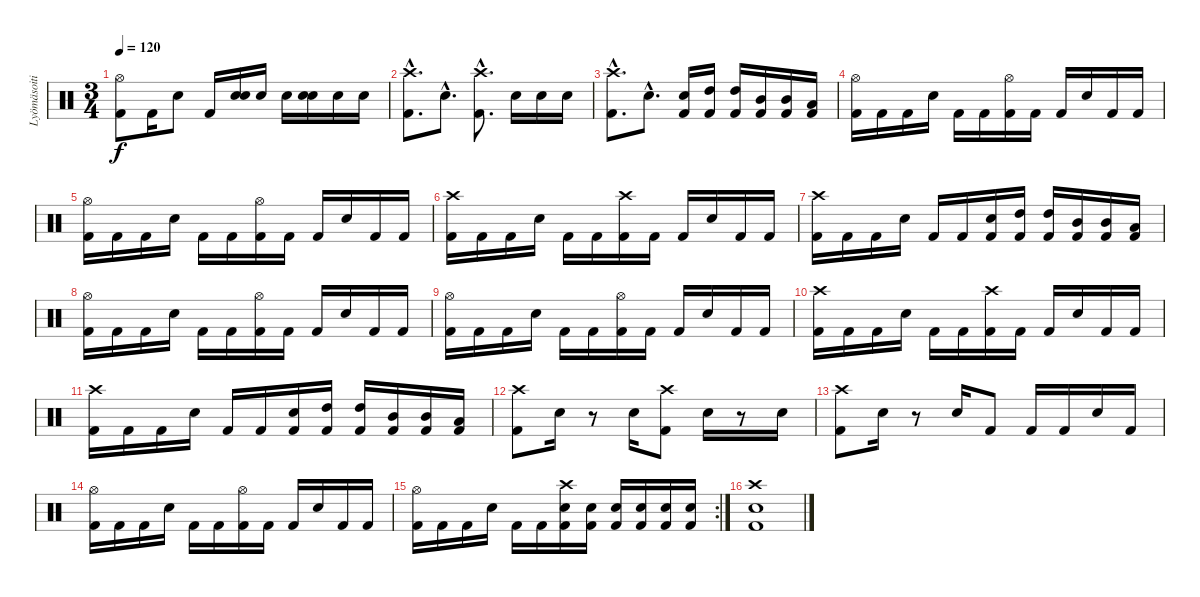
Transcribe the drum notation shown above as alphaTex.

\track ("Lyömäsoitin" "Lyömäsoiti") {instrument percussion}
\staff {score}
\articulation defaults
\ts (3 4)
\tempo 120
\clef neutral
\ks c
("Kick (hit) 2" "Hi-Hat (open)").8{dy f} "Kick (hit) 2".16 "Electric Snare (hit)".8 "Kick (hit) 2".16 ("Electric Snare (hit)" "Electric Snare (hit)").16 "Electric Snare (hit)".16 "Electric Snare (hit)".16 ("Electric Snare (hit)" "Electric Snare (hit)").16 "Electric Snare (hit)".16 "Electric Snare (hit)".16 |
("Crash high (hit)"{hac} "Kick (hit) 2"{hac}).8{d} "Electric Snare (hit)"{hac}.8{d} ("Crash high (hit)"{hac} "Kick (hit) 2"{hac}).8{d} "Electric Snare (hit)".16 "Electric Snare (hit)".16 "Electric Snare (hit)".16 |
("Crash high (hit)"{hac} "Kick (hit) 2"{hac}).8{d} "Electric Snare (hit)"{hac}.8{d} ("Kick (hit) 2" "Electric Snare (hit)").16 ("Kick (hit) 2" "High Tom (hit)").16 ("Kick (hit) 2" "High Tom (hit)").16 ("Kick (hit) 2" "Mid Tom (hit)").16 ("Kick (hit) 2" "Mid Tom (hit)").16 ("Kick (hit) 2" "Low Tom (hit)").16 |
("Hi-Hat (open)" "Kick (hit) 2").16 "Kick (hit) 2".16 "Kick (hit) 2".16 "Electric Snare (hit)".16 "Kick (hit) 2".16 "Kick (hit) 2".16 ("Hi-Hat (open)" "Kick (hit) 2").16 "Kick (hit) 2".16 "Kick (hit) 2".16 "Electric Snare (hit)".16 "Kick (hit) 2".16 "Kick (hit) 2".16 |
("Hi-Hat (open)" "Kick (hit) 2").16 "Kick (hit) 2".16 "Kick (hit) 2".16 "Electric Snare (hit)".16 "Kick (hit) 2".16 "Kick (hit) 2".16 ("Hi-Hat (open)" "Kick (hit) 2").16 "Kick (hit) 2".16 "Kick (hit) 2".16 "Electric Snare (hit)".16 "Kick (hit) 2".16 "Kick (hit) 2".16 |
("Crash high (hit)" "Kick (hit) 2").16 "Kick (hit) 2".16 "Kick (hit) 2".16 "Electric Snare (hit)".16 "Kick (hit) 2".16 "Kick (hit) 2".16 ("Crash high (hit)" "Kick (hit) 2").16 "Kick (hit) 2".16 "Kick (hit) 2".16 "Electric Snare (hit)".16 "Kick (hit) 2".16 "Kick (hit) 2".16 |
("Crash high (hit)" "Kick (hit) 2").16 "Kick (hit) 2".16 "Kick (hit) 2".16 "Electric Snare (hit)".16 "Kick (hit) 2".16 "Kick (hit) 2".16 ("Kick (hit) 2" "Electric Snare (hit)").16 ("Kick (hit) 2" "High Tom (hit)").16 ("Kick (hit) 2" "High Tom (hit)").16 ("Kick (hit) 2" "Mid Tom (hit)").16 ("Kick (hit) 2" "Mid Tom (hit)").16 ("Kick (hit) 2" "Low Tom (hit)").16 |
("Hi-Hat (open)" "Kick (hit) 2").16 "Kick (hit) 2".16 "Kick (hit) 2".16 "Electric Snare (hit)".16 "Kick (hit) 2".16 "Kick (hit) 2".16 ("Hi-Hat (open)" "Kick (hit) 2").16 "Kick (hit) 2".16 "Kick (hit) 2".16 "Electric Snare (hit)".16 "Kick (hit) 2".16 "Kick (hit) 2".16 |
("Hi-Hat (open)" "Kick (hit) 2").16 "Kick (hit) 2".16 "Kick (hit) 2".16 "Electric Snare (hit)".16 "Kick (hit) 2".16 "Kick (hit) 2".16 ("Hi-Hat (open)" "Kick (hit) 2").16 "Kick (hit) 2".16 "Kick (hit) 2".16 "Electric Snare (hit)".16 "Kick (hit) 2".16 "Kick (hit) 2".16 |
("Crash high (hit)" "Kick (hit) 2").16 "Kick (hit) 2".16 "Kick (hit) 2".16 "Electric Snare (hit)".16 "Kick (hit) 2".16 "Kick (hit) 2".16 ("Crash high (hit)" "Kick (hit) 2").16 "Kick (hit) 2".16 "Kick (hit) 2".16 "Electric Snare (hit)".16 "Kick (hit) 2".16 "Kick (hit) 2".16 |
("Crash high (hit)" "Kick (hit) 2").16 "Kick (hit) 2".16 "Kick (hit) 2".16 "Electric Snare (hit)".16 "Kick (hit) 2".16 "Kick (hit) 2".16 ("Kick (hit) 2" "Electric Snare (hit)").16 ("Kick (hit) 2" "High Tom (hit)").16 ("Kick (hit) 2" "High Tom (hit)").16 ("Kick (hit) 2" "Mid Tom (hit)").16 ("Kick (hit) 2" "Mid Tom (hit)").16 ("Kick (hit) 2" "Low Tom (hit)").16 |
("Crash high (hit)" "Kick (hit) 2").8 "Electric Snare (hit)".16 r.8 "Electric Snare (hit)".16 ("Crash high (hit)" "Kick (hit) 2").8 "Electric Snare (hit)".16 r.8 "Electric Snare (hit)".16 |
("Crash high (hit)" "Kick (hit) 2").8 "Electric Snare (hit)".16 r.8 "Electric Snare (hit)".16 "Kick (hit) 2".8 "Kick (hit) 2".16 "Kick (hit) 2".16 "Electric Snare (hit)".16 "Kick (hit) 2".16 |
("Hi-Hat (open)" "Kick (hit) 2").16 "Kick (hit) 2".16 "Kick (hit) 2".16 "Electric Snare (hit)".16 "Kick (hit) 2".16 "Kick (hit) 2".16 ("Hi-Hat (open)" "Kick (hit) 2").16 "Kick (hit) 2".16 "Kick (hit) 2".16 "Electric Snare (hit)".16 "Kick (hit) 2".16 "Kick (hit) 2".16 |
\rc 2
("Hi-Hat (open)" "Kick (hit) 2").16 "Kick (hit) 2".16 "Kick (hit) 2".16 "Electric Snare (hit)".16 "Kick (hit) 2".16 "Kick (hit) 2".16 ("Crash high (hit)" "Electric Snare (hit)" "Kick (hit) 2").16 ("Electric Snare (hit)" "Kick (hit) 2").16 ("Electric Snare (hit)" "Kick (hit) 2").16 ("Electric Snare (hit)" "Kick (hit) 2").16 ("Electric Snare (hit)" "Kick (hit) 2").16 ("Electric Snare (hit)" "Kick (hit) 2").16 |
("Crash high (hit)" "Electric Snare (hit)" "Kick (hit) 2").1
